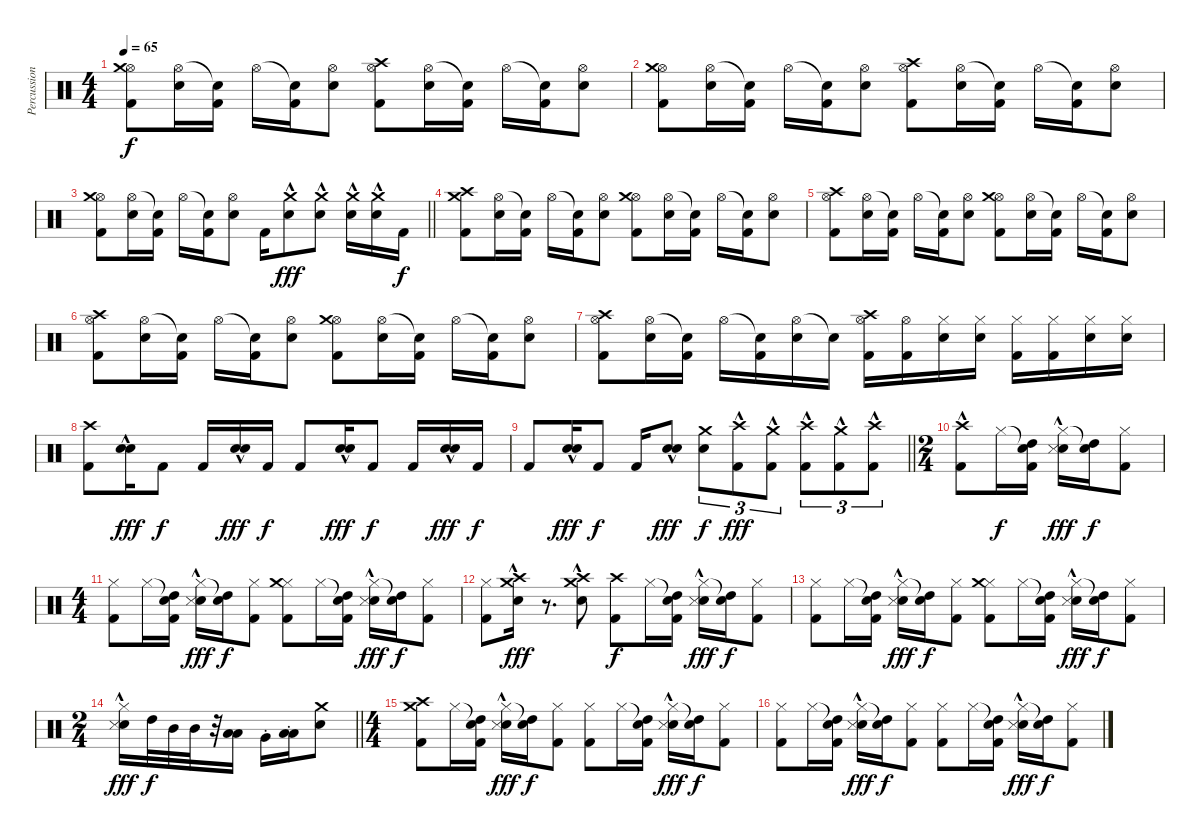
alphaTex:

\track ("Percussion 1" "Percussion") {instrument percussion}
\staff {score}
\articulation defaults
\ts (4 4)
\tempo 65
\clef neutral
\ks c
("Hi-Hat (open)" "Crash medium (hit)" "Kick (hit) 2").8{dy f} ("Hi-Hat (open)" "Electric Snare (hit)").16 ("Snare (hit)"{t} "Kick (hit) 2").16 "Hi-Hat (open)".16 ("Snare (hit)"{t} "Kick (hit) 2").16 ("Hi-Hat (open)" "Electric Snare (hit)").8 ("Hi-Hat (open)" "Crash high (hit)" "Kick (hit) 2").8 ("Hi-Hat (open)" "Electric Snare (hit)").16 ("Snare (hit)"{t} "Kick (hit) 2").16 "Hi-Hat (open)".16 ("Snare (hit)"{t} "Kick (hit) 2").16 ("Hi-Hat (open)" "Electric Snare (hit)").8 |
("Hi-Hat (open)" "Crash medium (hit)" "Kick (hit) 2").8 ("Hi-Hat (open)" "Electric Snare (hit)").16 ("Snare (hit)"{t} "Kick (hit) 2").16 "Hi-Hat (open)".16 ("Snare (hit)"{t} "Kick (hit) 2").16 ("Hi-Hat (open)" "Electric Snare (hit)").8 ("Hi-Hat (open)" "Crash high (hit)" "Kick (hit) 2").8 ("Hi-Hat (open)" "Electric Snare (hit)").16 ("Snare (hit)"{t} "Kick (hit) 2").16 "Hi-Hat (open)".16 ("Snare (hit)"{t} "Kick (hit) 2").16 ("Hi-Hat (open)" "Electric Snare (hit)").8 |
\barLineRight lightlight
("Hi-Hat (open)" "Crash medium (hit)" "Kick (hit) 2").8 ("Hi-Hat (open)" "Electric Snare (hit)").16 ("Snare (hit)"{t} "Kick (hit) 2").16 "Hi-Hat (open)".16 ("Snare (hit)"{t} "Kick (hit) 2").16 ("Hi-Hat (open)" "Electric Snare (hit)").8 "Kick (hit) 2".16 ("Electric Snare (hit)"{hac} "Crash medium (hit)").8{dy fff} ("Electric Snare (hit)"{hac} "Crash medium (hit)").8 ("Electric Snare (hit)"{hac} "Crash medium (hit)").16 ("Electric Snare (hit)"{hac} "Crash medium (hit)").16 "Kick (hit) 2".16{dy f} |
("Crash high (hit)" "Crash medium (hit)" "Kick (hit) 2").8 ("Hi-Hat (open)" "Electric Snare (hit)").16 ("Snare (hit)"{t} "Kick (hit) 2").16 "Hi-Hat (open)".16 ("Snare (hit)"{t} "Kick (hit) 2").16 ("Hi-Hat (open)" "Electric Snare (hit)").8 ("Hi-Hat (open)" "Crash medium (hit)" "Kick (hit) 2").8 ("Hi-Hat (open)" "Electric Snare (hit)").16 ("Snare (hit)"{t} "Kick (hit) 2").16 "Hi-Hat (open)".16 ("Snare (hit)"{t} "Kick (hit) 2").16 ("Hi-Hat (open)" "Electric Snare (hit)").8 |
("Hi-Hat (open)" "Crash high (hit)" "Kick (hit) 2").8 ("Hi-Hat (open)" "Electric Snare (hit)").16 ("Snare (hit)"{t} "Kick (hit) 2").16 "Hi-Hat (open)".16 ("Snare (hit)"{t} "Kick (hit) 2").16 ("Hi-Hat (open)" "Electric Snare (hit)").8 ("Hi-Hat (open)" "Crash medium (hit)" "Kick (hit) 2").8 ("Hi-Hat (open)" "Electric Snare (hit)").16 ("Snare (hit)"{t} "Kick (hit) 2").16 "Hi-Hat (open)".16 ("Snare (hit)"{t} "Kick (hit) 2").16 ("Hi-Hat (open)" "Electric Snare (hit)").8 |
("Hi-Hat (open)" "Crash high (hit)" "Kick (hit) 2").8 ("Hi-Hat (open)" "Electric Snare (hit)").16 ("Snare (hit)"{t} "Kick (hit) 2").16 "Hi-Hat (open)".16 ("Snare (hit)"{t} "Kick (hit) 2").16 ("Hi-Hat (open)" "Electric Snare (hit)").8 ("Hi-Hat (open)" "Crash medium (hit)" "Kick (hit) 2").8 ("Hi-Hat (open)" "Electric Snare (hit)").16 ("Snare (hit)"{t} "Kick (hit) 2").16 "Hi-Hat (open)".16 ("Snare (hit)"{t} "Kick (hit) 2").16 ("Hi-Hat (open)" "Electric Snare (hit)").8 |
("Hi-Hat (open)" "Crash high (hit)" "Kick (hit) 2").8 ("Hi-Hat (open)" "Electric Snare (hit)").16 ("Snare (hit)"{t} "Kick (hit) 2").16 "Hi-Hat (open)".16 ("Snare (hit)"{t} "Kick (hit) 2").16 ("Hi-Hat (open)" "Electric Snare (hit)").16 "Snare (hit)"{t}.16 ("Hi-Hat (open)" "Crash high (hit)" "Kick (hit) 2").16 ("Hi-Hat (open)" "Kick (hit) 2").16 ("Hi-Hat (closed)" "Electric Snare (hit)").16 ("Hi-Hat (closed)" "Electric Snare (hit)").16 ("Hi-Hat (closed)" "Kick (hit) 2").16 ("Hi-Hat (closed)" "Kick (hit) 2").16 ("Hi-Hat (closed)" "Electric Snare (hit)").16 ("Hi-Hat (closed)" "Electric Snare (hit)").16 |
("Crash high (hit)" "Kick (hit) 2").8 ("Electric Snare (hit)"{hac} "Electric Snare (hit)"{hac}).16{bd 120 dy fff} "Kick (hit) 2".8{dy f} "Kick (hit) 2".16 ("Electric Snare (hit)"{hac} "Electric Snare (hit)"{hac}).16{bd 120 dy fff} "Kick (hit) 2".16{dy f} "Kick (hit) 2".8 ("Electric Snare (hit)"{hac} "Electric Snare (hit)"{hac}).16{bd 120 dy fff} "Kick (hit) 2".8{dy f} "Kick (hit) 2".16 ("Electric Snare (hit)"{hac} "Electric Snare (hit)"{hac}).16{bd 120 dy fff} "Kick (hit) 2".16{dy f} |
\barLineRight lightlight "Kick (hit) 2".8
("Electric Snare (hit)"{hac} "Electric Snare (hit)"{hac}).16{bd 120 dy fff} "Kick (hit) 2".8{dy f} "Kick (hit) 2".16 ("Electric Snare (hit)"{hac} "Electric Snare (hit)"{hac}).8{bd 120 dy fff} ("Crash medium (hit)" "Electric Snare (hit)").8{tu (3 2) dy f} ("Crash high (hit)"{hac} "Kick (hit) 2").8{tu (3 2) dy fff} ("Crash medium (hit)"{hac} "Kick (hit) 2").8{tu (3 2)} ("Crash high (hit)"{hac} "Kick (hit) 2").8{tu (3 2)} ("Crash medium (hit)"{hac} "Kick (hit) 2").8{tu (3 2)} ("Crash high (hit)"{hac} "Kick (hit) 2").8{tu (3 2)} |
\ts (2 4)
("Crash high (hit)"{hac} "Kick (hit) 2").8 "Hi-Hat (closed)".16{dy f} ("Snare (hit)"{t} "High Tom (hit)" "Kick (hit) 2").16 ("Hi-Hat (closed)" "Electric Snare (hit)" "Metronome (hit)"{hac}).16{dy fff} ("Snare (hit)"{t} "High Tom (hit)").16{dy f} ("Hi-Hat (closed)" "Kick (hit) 2").8 |
\ts (4 4)
("Hi-Hat (closed)" "Kick (hit) 2").8 "Hi-Hat (closed)".16 ("Snare (hit)"{t} "High Tom (hit)" "Kick (hit) 2").16 ("Hi-Hat (closed)" "Electric Snare (hit)" "Metronome (hit)"{hac}).16{dy fff} ("Snare (hit)"{t} "High Tom (hit)").16{dy f} ("Hi-Hat (closed)" "Kick (hit) 2").8 ("Hi-Hat (closed)" "Crash medium (hit)" "Kick (hit) 2").8 "Hi-Hat (closed)".16 ("Snare (hit)"{t} "High Tom (hit)" "Kick (hit) 2").16 ("Hi-Hat (closed)" "Electric Snare (hit)" "Metronome (hit)"{hac}).16{dy fff} ("Snare (hit)"{t} "High Tom (hit)").16{dy f} ("Hi-Hat (closed)" "Kick (hit) 2").8 |
("Hi-Hat (closed)" "Kick (hit) 2").8 ("Electric Snare (hit)"{hac} "Crash medium (hit)"{hac} "Crash high (hit)").16{dy fff} r.8{d} ("Electric Snare (hit)"{hac} "Crash medium (hit)"{hac} "Crash high (hit)").8 ("Crash high (hit)" "Kick (hit) 2").8{dy f} "Hi-Hat (closed)".16 ("Snare (hit)"{t} "High Tom (hit)" "Kick (hit) 2").16 ("Hi-Hat (closed)" "Electric Snare (hit)" "Metronome (hit)"{hac}).16{dy fff} ("Snare (hit)"{t} "High Tom (hit)").16{dy f} ("Hi-Hat (closed)" "Kick (hit) 2").8 |
("Hi-Hat (closed)" "Kick (hit) 2").8 "Hi-Hat (closed)".16 ("Snare (hit)"{t} "High Tom (hit)" "Kick (hit) 2").16 ("Hi-Hat (closed)" "Electric Snare (hit)" "Metronome (hit)"{hac}).16{dy fff} ("Snare (hit)"{t} "High Tom (hit)").16{dy f} ("Hi-Hat (closed)" "Kick (hit) 2").8 ("Hi-Hat (closed)" "Crash medium (hit)" "Kick (hit) 2").8 "Hi-Hat (closed)".16 ("Snare (hit)"{t} "High Tom (hit)" "Kick (hit) 2").16 ("Hi-Hat (closed)" "Electric Snare (hit)" "Metronome (hit)"{hac}).16{dy fff} ("Snare (hit)"{t} "High Tom (hit)").16{dy f} ("Hi-Hat (closed)" "Kick (hit) 2").8 |
\ts (2 4)
\barLineRight lightlight
("Hi-Hat (closed)" "Electric Snare (hit)" "Metronome (hit)"{hac}).16{dy fff} "High Tom (hit)".32{dy f} "Mid Tom (hit)".32 "Mid Tom (hit)".32 r.32 ("Low Tom (hit)" "Low Floor Tom (hit)").16 "Very Low Tom (hit)"{st}.16 ("Low Tom (hit)" "Low Floor Tom (hit)"{st}).16 ("Crash medium (hit)" "Electric Snare (hit)").8 |
\ts (4 4)
("Crash high (hit)" "Crash medium (hit)" "Kick (hit) 2").8 "Hi-Hat (closed)".16 ("Snare (hit)"{t} "High Tom (hit)" "Kick (hit) 2").16 ("Hi-Hat (closed)" "Electric Snare (hit)" "Metronome (hit)"{hac}).16{dy fff} ("Snare (hit)"{t} "High Tom (hit)").16{dy f} ("Hi-Hat (closed)" "Kick (hit) 2").8 ("Hi-Hat (closed)" "Kick (hit) 2").8 "Hi-Hat (closed)".16 ("Snare (hit)"{t} "High Tom (hit)" "Kick (hit) 2").16 ("Hi-Hat (closed)" "Electric Snare (hit)" "Metronome (hit)"{hac}).16{dy fff} ("Snare (hit)"{t} "High Tom (hit)").16{dy f} ("Hi-Hat (closed)" "Kick (hit) 2").8 |
("Hi-Hat (closed)" "Kick (hit) 2").8 "Hi-Hat (closed)".16 ("Snare (hit)"{t} "High Tom (hit)" "Kick (hit) 2").16 ("Hi-Hat (closed)" "Electric Snare (hit)" "Metronome (hit)"{hac}).16{dy fff} ("Snare (hit)"{t} "High Tom (hit)").16{dy f} ("Hi-Hat (closed)" "Kick (hit) 2").8 ("Hi-Hat (closed)" "Kick (hit) 2").8 "Hi-Hat (closed)".16 ("Snare (hit)"{t} "High Tom (hit)" "Kick (hit) 2").16 ("Hi-Hat (closed)" "Electric Snare (hit)" "Metronome (hit)"{hac}).16{dy fff} ("Snare (hit)"{t} "High Tom (hit)").16{dy f} ("Hi-Hat (closed)" "Kick (hit) 2").8
